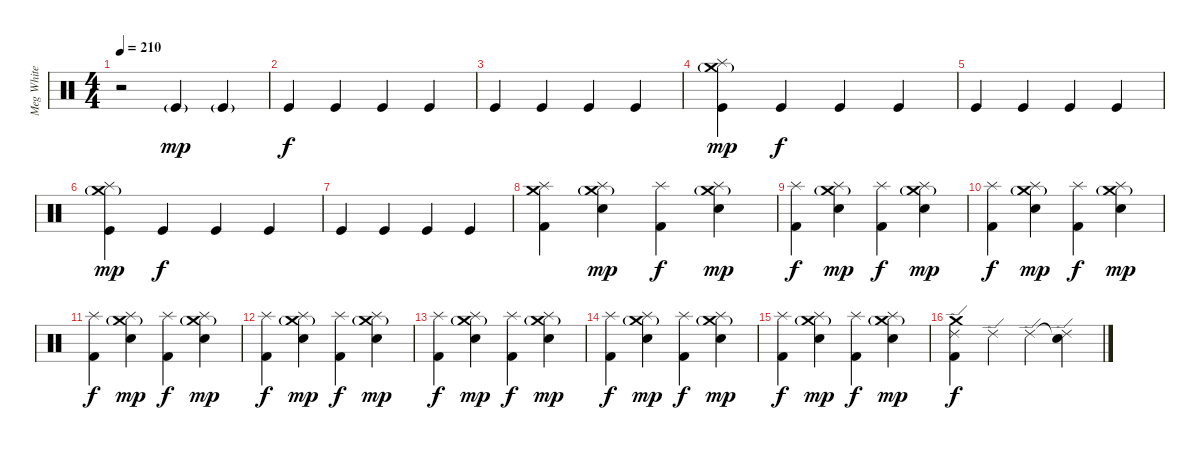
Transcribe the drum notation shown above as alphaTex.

\track ("Meg White (Drums)" "Meg White ") {instrument percussion}
\staff {score}
\articulation defaults
\ts (4 4)
\tempo 210
\clef neutral
\ks c
r.2{dy mp} "Kick (hit)"{g}.4 "Kick (hit)"{g}.4 |
"Kick (hit)".4{dy f} "Kick (hit)".4 "Kick (hit)".4 "Kick (hit)".4 |
"Kick (hit)".4 "Kick (hit)".4 "Kick (hit)".4 "Kick (hit)".4 |
("Kick (hit)" "Splash (hit)" "Crash medium (hit)"{g}).4{dy mp} "Kick (hit)".4{dy f} "Kick (hit)".4 "Kick (hit)".4 |
"Kick (hit)".4 "Kick (hit)".4 "Kick (hit)".4 "Kick (hit)".4 |
("Kick (hit)" "Splash (hit)" "Crash medium (hit)"{g}).4{dy mp} "Kick (hit)".4{dy f} "Kick (hit)".4 "Kick (hit)".4 |
"Kick (hit)".4 "Kick (hit)".4 "Kick (hit)".4 "Kick (hit)".4 |
("Kick (hit) 2" "Splash (hit)" "Crash medium (hit)").4 ("Electric Snare (hit)" "Splash (hit)" "Crash medium (hit)"{g}).4{dy mp} ("Kick (hit) 2" "Splash (hit)").4{dy f} ("Electric Snare (hit)" "Splash (hit)" "Crash medium (hit)"{g}).4{dy mp} |
("Kick (hit) 2" "Splash (hit)").4{dy f} ("Electric Snare (hit)" "Splash (hit)" "Crash medium (hit)"{g}).4{dy mp} ("Kick (hit) 2" "Splash (hit)").4{dy f} ("Electric Snare (hit)" "Splash (hit)" "Crash medium (hit)"{g}).4{dy mp} |
("Kick (hit) 2" "Splash (hit)").4{dy f} ("Electric Snare (hit)" "Splash (hit)" "Crash medium (hit)"{g}).4{dy mp} ("Kick (hit) 2" "Splash (hit)").4{dy f} ("Electric Snare (hit)" "Splash (hit)" "Crash medium (hit)"{g}).4{dy mp} |
("Kick (hit) 2" "Splash (hit)").4{dy f} ("Electric Snare (hit)" "Splash (hit)" "Crash medium (hit)"{g}).4{dy mp} ("Kick (hit) 2" "Splash (hit)").4{dy f} ("Electric Snare (hit)" "Splash (hit)" "Crash medium (hit)"{g}).4{dy mp} |
("Kick (hit) 2" "Splash (hit)").4{dy f} ("Electric Snare (hit)" "Splash (hit)" "Crash medium (hit)"{g}).4{dy mp} ("Kick (hit) 2" "Splash (hit)").4{dy f} ("Electric Snare (hit)" "Splash (hit)" "Crash medium (hit)"{g}).4{dy mp} |
("Kick (hit) 2" "Splash (hit)").4{dy f} ("Electric Snare (hit)" "Splash (hit)" "Crash medium (hit)"{g}).4{dy mp} ("Kick (hit) 2" "Splash (hit)").4{dy f} ("Electric Snare (hit)" "Splash (hit)" "Crash medium (hit)"{g}).4{dy mp} |
("Kick (hit) 2" "Splash (hit)").4{dy f} ("Electric Snare (hit)" "Splash (hit)" "Crash medium (hit)"{g}).4{dy mp} ("Kick (hit) 2" "Splash (hit)").4{dy f} ("Electric Snare (hit)" "Splash (hit)" "Crash medium (hit)"{g}).4{dy mp} |
("Kick (hit) 2" "Splash (hit)").4{dy f} ("Electric Snare (hit)" "Splash (hit)" "Crash medium (hit)"{g}).4{dy mp} ("Kick (hit) 2" "Splash (hit)").4{dy f} ("Electric Snare (hit)" "Splash (hit)" "Crash medium (hit)"{g}).4{dy mp} |
("Kick (hit) 2" "Crash medium (hit)" "Ride (edge) 2").4{dy f} "Ride (edge) 2".4 "Ride (edge) 2".4 ("Snare (hit)"{t} "Ride (edge) 2").4
